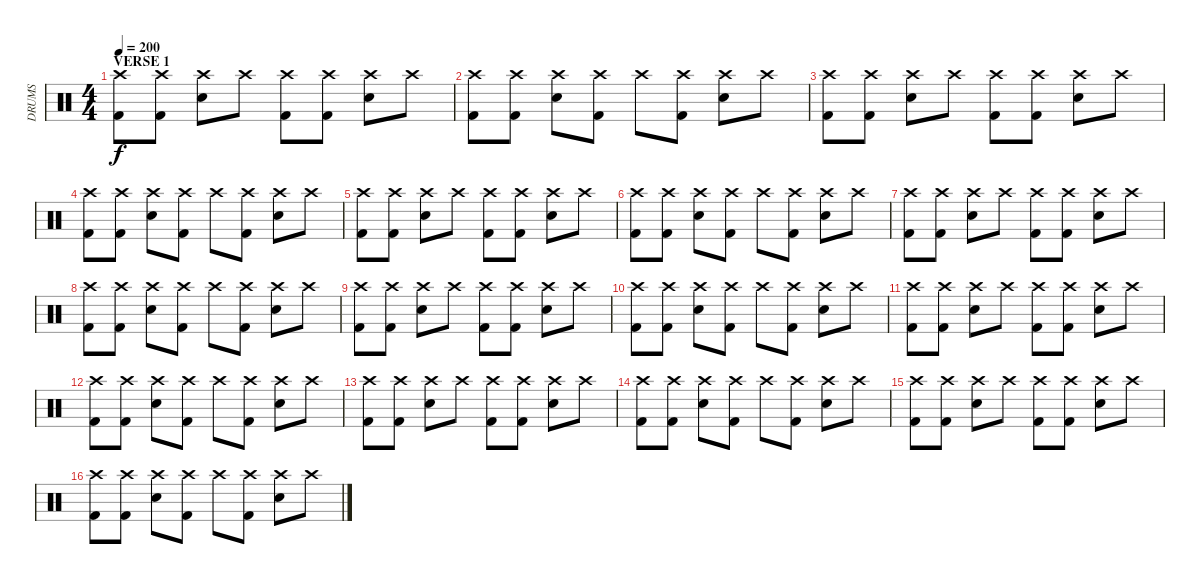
\track ("DRUMS" "DRUMS") {instrument percussion}
\staff {score}
\articulation defaults
\ts (4 4)
\section ("" "VERSE 1")
\tempo 200
\clef neutral
\ks c
("Crash high (hit)" "Kick (hit) 2").8{dy f} ("Crash high (hit)" "Kick (hit) 2").8 ("Crash high (hit)" "Snare (hit) 2").8 "Crash high (hit)".8 ("Crash high (hit)" "Kick (hit) 2").8 ("Crash high (hit)" "Kick (hit) 2").8 ("Crash high (hit)" "Snare (hit) 2").8 "Crash high (hit)".8 |
("Crash high (hit)" "Kick (hit) 2").8 ("Crash high (hit)" "Kick (hit) 2").8 ("Crash high (hit)" "Snare (hit) 2").8 ("Crash high (hit)" "Kick (hit) 2").8 "Crash high (hit)".8 ("Crash high (hit)" "Kick (hit) 2").8 ("Crash high (hit)" "Snare (hit) 2").8 "Crash high (hit)".8 |
("Crash high (hit)" "Kick (hit) 2").8 ("Crash high (hit)" "Kick (hit) 2").8 ("Crash high (hit)" "Snare (hit) 2").8 "Crash high (hit)".8 ("Crash high (hit)" "Kick (hit) 2").8 ("Crash high (hit)" "Kick (hit) 2").8 ("Crash high (hit)" "Snare (hit) 2").8 "Crash high (hit)".8 |
("Crash high (hit)" "Kick (hit) 2").8 ("Crash high (hit)" "Kick (hit) 2").8 ("Crash high (hit)" "Snare (hit) 2").8 ("Crash high (hit)" "Kick (hit) 2").8 "Crash high (hit)".8 ("Crash high (hit)" "Kick (hit) 2").8 ("Crash high (hit)" "Snare (hit) 2").8 "Crash high (hit)".8 |
("Crash high (hit)" "Kick (hit) 2").8 ("Crash high (hit)" "Kick (hit) 2").8 ("Crash high (hit)" "Snare (hit) 2").8 "Crash high (hit)".8 ("Crash high (hit)" "Kick (hit) 2").8 ("Crash high (hit)" "Kick (hit) 2").8 ("Crash high (hit)" "Snare (hit) 2").8 "Crash high (hit)".8 |
("Crash high (hit)" "Kick (hit) 2").8 ("Crash high (hit)" "Kick (hit) 2").8 ("Crash high (hit)" "Snare (hit) 2").8 ("Crash high (hit)" "Kick (hit) 2").8 "Crash high (hit)".8 ("Crash high (hit)" "Kick (hit) 2").8 ("Crash high (hit)" "Snare (hit) 2").8 "Crash high (hit)".8 |
("Crash high (hit)" "Kick (hit) 2").8 ("Crash high (hit)" "Kick (hit) 2").8 ("Crash high (hit)" "Snare (hit) 2").8 "Crash high (hit)".8 ("Crash high (hit)" "Kick (hit) 2").8 ("Crash high (hit)" "Kick (hit) 2").8 ("Crash high (hit)" "Snare (hit) 2").8 "Crash high (hit)".8 |
("Crash high (hit)" "Kick (hit) 2").8 ("Crash high (hit)" "Kick (hit) 2").8 ("Crash high (hit)" "Snare (hit) 2").8 ("Crash high (hit)" "Kick (hit) 2").8 "Crash high (hit)".8 ("Crash high (hit)" "Kick (hit) 2").8 ("Crash high (hit)" "Snare (hit) 2").8 "Crash high (hit)".8 |
("Crash high (hit)" "Kick (hit) 2").8 ("Crash high (hit)" "Kick (hit) 2").8 ("Crash high (hit)" "Snare (hit) 2").8 "Crash high (hit)".8 ("Crash high (hit)" "Kick (hit) 2").8 ("Crash high (hit)" "Kick (hit) 2").8 ("Crash high (hit)" "Snare (hit) 2").8 "Crash high (hit)".8 |
("Crash high (hit)" "Kick (hit) 2").8 ("Crash high (hit)" "Kick (hit) 2").8 ("Crash high (hit)" "Snare (hit) 2").8 ("Crash high (hit)" "Kick (hit) 2").8 "Crash high (hit)".8 ("Crash high (hit)" "Kick (hit) 2").8 ("Crash high (hit)" "Snare (hit) 2").8 "Crash high (hit)".8 |
("Crash high (hit)" "Kick (hit) 2").8 ("Crash high (hit)" "Kick (hit) 2").8 ("Crash high (hit)" "Snare (hit) 2").8 "Crash high (hit)".8 ("Crash high (hit)" "Kick (hit) 2").8 ("Crash high (hit)" "Kick (hit) 2").8 ("Crash high (hit)" "Snare (hit) 2").8 "Crash high (hit)".8 |
("Crash high (hit)" "Kick (hit) 2").8 ("Crash high (hit)" "Kick (hit) 2").8 ("Crash high (hit)" "Snare (hit) 2").8 ("Crash high (hit)" "Kick (hit) 2").8 "Crash high (hit)".8 ("Crash high (hit)" "Kick (hit) 2").8 ("Crash high (hit)" "Snare (hit) 2").8 "Crash high (hit)".8 |
("Crash high (hit)" "Kick (hit) 2").8 ("Crash high (hit)" "Kick (hit) 2").8 ("Crash high (hit)" "Snare (hit) 2").8 "Crash high (hit)".8 ("Crash high (hit)" "Kick (hit) 2").8 ("Crash high (hit)" "Kick (hit) 2").8 ("Crash high (hit)" "Snare (hit) 2").8 "Crash high (hit)".8 |
("Crash high (hit)" "Kick (hit) 2").8 ("Crash high (hit)" "Kick (hit) 2").8 ("Crash high (hit)" "Snare (hit) 2").8 ("Crash high (hit)" "Kick (hit) 2").8 "Crash high (hit)".8 ("Crash high (hit)" "Kick (hit) 2").8 ("Crash high (hit)" "Snare (hit) 2").8 "Crash high (hit)".8 |
("Crash high (hit)" "Kick (hit) 2").8 ("Crash high (hit)" "Kick (hit) 2").8 ("Crash high (hit)" "Snare (hit) 2").8 "Crash high (hit)".8 ("Crash high (hit)" "Kick (hit) 2").8 ("Crash high (hit)" "Kick (hit) 2").8 ("Crash high (hit)" "Snare (hit) 2").8 "Crash high (hit)".8 |
("Crash high (hit)" "Kick (hit) 2").8 ("Crash high (hit)" "Kick (hit) 2").8 ("Crash high (hit)" "Snare (hit) 2").8 ("Crash high (hit)" "Kick (hit) 2").8 "Crash high (hit)".8 ("Crash high (hit)" "Kick (hit) 2").8 ("Crash high (hit)" "Snare (hit) 2").8 "Crash high (hit)".8
